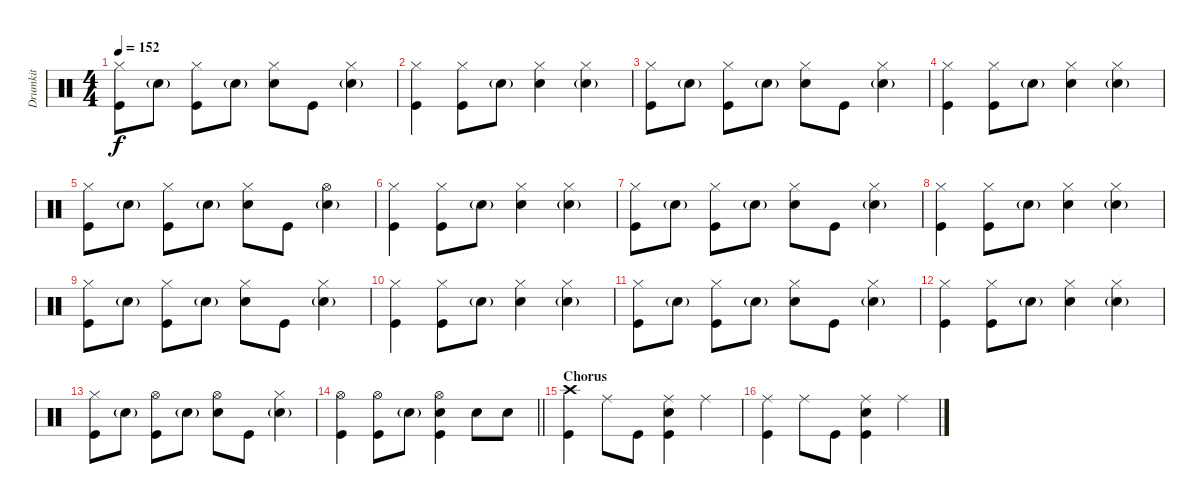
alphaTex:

\track ("Drumkit" "Drumkit") {instrument percussion}
\staff {score}
\articulation defaults
\ts (4 4)
\tempo 152
\clef neutral
\ks c
("Kick (hit)" "Hi-Hat (closed)").8{dy f} "Snare (hit) 2"{g}.8 ("Hi-Hat (closed)" "Kick (hit)").8 "Snare (hit) 2"{g}.8 ("Hi-Hat (closed)" "Snare (hit) 2").8 "Kick (hit)".8 ("Hi-Hat (closed)" "Snare (hit) 2"{g}).4 |
("Kick (hit)" "Hi-Hat (closed)").4 ("Hi-Hat (closed)" "Kick (hit)").8 "Snare (hit) 2"{g}.8 ("Hi-Hat (closed)" "Snare (hit) 2").4 ("Hi-Hat (closed)" "Snare (hit) 2"{g}).4 |
("Kick (hit)" "Hi-Hat (closed)").8 "Snare (hit) 2"{g}.8 ("Hi-Hat (closed)" "Kick (hit)").8 "Snare (hit) 2"{g}.8 ("Hi-Hat (closed)" "Snare (hit) 2").8 "Kick (hit)".8 ("Hi-Hat (closed)" "Snare (hit) 2"{g}).4 |
("Kick (hit)" "Hi-Hat (closed)").4 ("Hi-Hat (closed)" "Kick (hit)").8 "Snare (hit) 2"{g}.8 ("Hi-Hat (closed)" "Snare (hit) 2").4 ("Hi-Hat (closed)" "Snare (hit) 2"{g}).4 |
("Kick (hit)" "Hi-Hat (closed)").8 "Snare (hit) 2"{g}.8 ("Hi-Hat (closed)" "Kick (hit)").8 "Snare (hit) 2"{g}.8 ("Hi-Hat (closed)" "Snare (hit) 2").8 "Kick (hit)".8 ("Hi-Hat (open)" "Snare (hit) 2"{g}).4 |
("Kick (hit)" "Hi-Hat (closed)").4 ("Hi-Hat (closed)" "Kick (hit)").8 "Snare (hit) 2"{g}.8 ("Hi-Hat (closed)" "Snare (hit) 2").4 ("Hi-Hat (closed)" "Snare (hit) 2"{g}).4 |
("Kick (hit)" "Hi-Hat (closed)").8 "Snare (hit) 2"{g}.8 ("Hi-Hat (closed)" "Kick (hit)").8 "Snare (hit) 2"{g}.8 ("Hi-Hat (closed)" "Snare (hit) 2").8 "Kick (hit)".8 ("Hi-Hat (closed)" "Snare (hit) 2"{g}).4 |
("Kick (hit)" "Hi-Hat (closed)").4 ("Hi-Hat (closed)" "Kick (hit)").8 "Snare (hit) 2"{g}.8 ("Hi-Hat (closed)" "Snare (hit) 2").4 ("Hi-Hat (closed)" "Snare (hit) 2"{g}).4 |
("Kick (hit)" "Hi-Hat (closed)").8 "Snare (hit) 2"{g}.8 ("Hi-Hat (closed)" "Kick (hit)").8 "Snare (hit) 2"{g}.8 ("Hi-Hat (closed)" "Snare (hit) 2").8 "Kick (hit)".8 ("Hi-Hat (closed)" "Snare (hit) 2"{g}).4 |
("Kick (hit)" "Hi-Hat (closed)").4 ("Hi-Hat (closed)" "Kick (hit)").8 "Snare (hit) 2"{g}.8 ("Hi-Hat (closed)" "Snare (hit) 2").4 ("Hi-Hat (closed)" "Snare (hit) 2"{g}).4 |
("Kick (hit)" "Hi-Hat (closed)").8 "Snare (hit) 2"{g}.8 ("Hi-Hat (closed)" "Kick (hit)").8 "Snare (hit) 2"{g}.8 ("Hi-Hat (closed)" "Snare (hit) 2").8 "Kick (hit)".8 ("Hi-Hat (closed)" "Snare (hit) 2"{g}).4 |
("Kick (hit)" "Hi-Hat (closed)").4 ("Hi-Hat (closed)" "Kick (hit)").8 "Snare (hit) 2"{g}.8 ("Hi-Hat (closed)" "Snare (hit) 2").4 ("Hi-Hat (closed)" "Snare (hit) 2"{g}).4 |
("Kick (hit)" "Hi-Hat (closed)").8 "Snare (hit) 2"{g}.8 ("Hi-Hat (open)" "Kick (hit)").8 "Snare (hit) 2"{g}.8 ("Snare (hit) 2" "Hi-Hat (open)").8 "Kick (hit)".8 ("Hi-Hat (closed)" "Snare (hit) 2"{g}).4 |
\barLineRight lightlight
("Kick (hit)" "Hi-Hat (open)").4 ("Hi-Hat (open)" "Kick (hit)").8 "Snare (hit) 2"{g}.8 ("Kick (hit)" "Hi-Hat (open)" "Snare (hit) 2").4 "Snare (hit) 2".8 "Snare (hit) 2".8 |
\section ("" "Chorus")
("Crash high (hit)" "Kick (hit)").4 "Ride (middle)".8 "Kick (hit)".8 ("Snare (hit) 2" "Ride (middle)" "Kick (hit)").4 "Ride (middle)".4 |
("Kick (hit)" "Ride (middle)").4 "Ride (middle)".8 "Kick (hit)".8 ("Snare (hit) 2" "Ride (middle)" "Kick (hit)").4 "Ride (middle)".4
